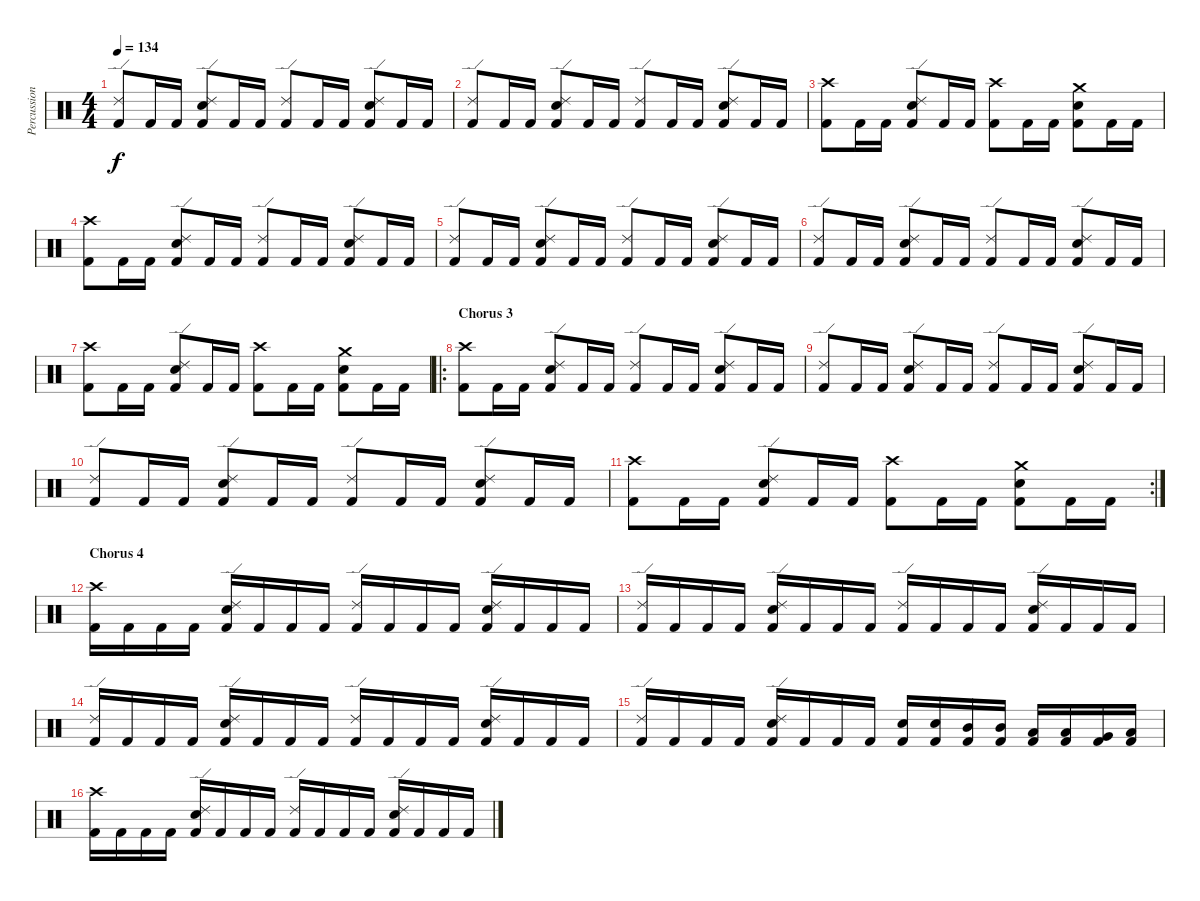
\track ("Percussion" "Percussion") {instrument percussion}
\staff {score}
\articulation defaults
\ts (4 4)
\tempo 134
\clef neutral
\ks c
("Kick (hit) 2" "Ride (edge) 2").8{dy f} "Kick (hit) 2".16 "Kick (hit) 2".16 ("Kick (hit) 2" "Snare (hit) 2" "Ride (edge) 2").8 "Kick (hit) 2".16 "Kick (hit) 2".16 ("Kick (hit) 2" "Ride (edge) 2").8 "Kick (hit) 2".16 "Kick (hit) 2".16 ("Kick (hit) 2" "Snare (hit) 2" "Ride (edge) 2").8 "Kick (hit) 2".16 "Kick (hit) 2".16 |
("Kick (hit) 2" "Ride (edge) 2").8 "Kick (hit) 2".16 "Kick (hit) 2".16 ("Kick (hit) 2" "Snare (hit) 2" "Ride (edge) 2").8 "Kick (hit) 2".16 "Kick (hit) 2".16 ("Kick (hit) 2" "Ride (edge) 2").8 "Kick (hit) 2".16 "Kick (hit) 2".16 ("Kick (hit) 2" "Snare (hit) 2" "Ride (edge) 2").8 "Kick (hit) 2".16 "Kick (hit) 2".16 |
("Kick (hit) 2" "Crash high (hit)").8 "Kick (hit) 2".16 "Kick (hit) 2".16 ("Kick (hit) 2" "Snare (hit) 2" "Ride (edge) 2").8 "Kick (hit) 2".16 "Kick (hit) 2".16 ("Kick (hit) 2" "Crash high (hit)").8 "Kick (hit) 2".16 "Kick (hit) 2".16 ("Kick (hit) 2" "Snare (hit) 2" "Crash medium (hit)").8 "Kick (hit) 2".16 "Kick (hit) 2".16 |
("Kick (hit) 2" "Crash high (hit)").8 "Kick (hit) 2".16 "Kick (hit) 2".16 ("Kick (hit) 2" "Snare (hit) 2" "Ride (edge) 2").8 "Kick (hit) 2".16 "Kick (hit) 2".16 ("Kick (hit) 2" "Ride (edge) 2").8 "Kick (hit) 2".16 "Kick (hit) 2".16 ("Kick (hit) 2" "Snare (hit) 2" "Ride (edge) 2").8 "Kick (hit) 2".16 "Kick (hit) 2".16 |
("Kick (hit) 2" "Ride (edge) 2").8 "Kick (hit) 2".16 "Kick (hit) 2".16 ("Kick (hit) 2" "Snare (hit) 2" "Ride (edge) 2").8 "Kick (hit) 2".16 "Kick (hit) 2".16 ("Kick (hit) 2" "Ride (edge) 2").8 "Kick (hit) 2".16 "Kick (hit) 2".16 ("Kick (hit) 2" "Snare (hit) 2" "Ride (edge) 2").8 "Kick (hit) 2".16 "Kick (hit) 2".16 |
("Kick (hit) 2" "Ride (edge) 2").8 "Kick (hit) 2".16 "Kick (hit) 2".16 ("Kick (hit) 2" "Snare (hit) 2" "Ride (edge) 2").8 "Kick (hit) 2".16 "Kick (hit) 2".16 ("Kick (hit) 2" "Ride (edge) 2").8 "Kick (hit) 2".16 "Kick (hit) 2".16 ("Kick (hit) 2" "Snare (hit) 2" "Ride (edge) 2").8 "Kick (hit) 2".16 "Kick (hit) 2".16 |
("Kick (hit) 2" "Crash high (hit)").8 "Kick (hit) 2".16 "Kick (hit) 2".16 ("Kick (hit) 2" "Snare (hit) 2" "Ride (edge) 2").8 "Kick (hit) 2".16 "Kick (hit) 2".16 ("Kick (hit) 2" "Crash high (hit)").8 "Kick (hit) 2".16 "Kick (hit) 2".16 ("Kick (hit) 2" "Snare (hit) 2" "Crash medium (hit)").8 "Kick (hit) 2".16 "Kick (hit) 2".16 |
\ro
\section ("" "Chorus 3")
("Kick (hit) 2" "Crash high (hit)").8 "Kick (hit) 2".16 "Kick (hit) 2".16 ("Kick (hit) 2" "Snare (hit) 2" "Ride (edge) 2").8 "Kick (hit) 2".16 "Kick (hit) 2".16 ("Kick (hit) 2" "Ride (edge) 2").8 "Kick (hit) 2".16 "Kick (hit) 2".16 ("Kick (hit) 2" "Snare (hit) 2" "Ride (edge) 2").8 "Kick (hit) 2".16 "Kick (hit) 2".16 |
("Kick (hit) 2" "Ride (edge) 2").8 "Kick (hit) 2".16 "Kick (hit) 2".16 ("Kick (hit) 2" "Snare (hit) 2" "Ride (edge) 2").8 "Kick (hit) 2".16 "Kick (hit) 2".16 ("Kick (hit) 2" "Ride (edge) 2").8 "Kick (hit) 2".16 "Kick (hit) 2".16 ("Kick (hit) 2" "Snare (hit) 2" "Ride (edge) 2").8 "Kick (hit) 2".16 "Kick (hit) 2".16 |
("Kick (hit) 2" "Ride (edge) 2").8 "Kick (hit) 2".16 "Kick (hit) 2".16 ("Kick (hit) 2" "Snare (hit) 2" "Ride (edge) 2").8 "Kick (hit) 2".16 "Kick (hit) 2".16 ("Kick (hit) 2" "Ride (edge) 2").8 "Kick (hit) 2".16 "Kick (hit) 2".16 ("Kick (hit) 2" "Snare (hit) 2" "Ride (edge) 2").8 "Kick (hit) 2".16 "Kick (hit) 2".16 |
\rc 2
("Kick (hit) 2" "Crash high (hit)").8 "Kick (hit) 2".16 "Kick (hit) 2".16 ("Kick (hit) 2" "Snare (hit) 2" "Ride (edge) 2").8 "Kick (hit) 2".16 "Kick (hit) 2".16 ("Kick (hit) 2" "Crash high (hit)").8 "Kick (hit) 2".16 "Kick (hit) 2".16 ("Kick (hit) 2" "Snare (hit) 2" "Crash medium (hit)").8 "Kick (hit) 2".16 "Kick (hit) 2".16 |
\section ("" "Chorus 4")
("Kick (hit) 2" "Crash high (hit)").16 "Kick (hit) 2".16 "Kick (hit) 2".16 "Kick (hit) 2".16 ("Kick (hit) 2" "Snare (hit) 2" "Ride (edge) 2").16 "Kick (hit) 2".16 "Kick (hit) 2".16 "Kick (hit) 2".16 ("Kick (hit) 2" "Ride (edge) 2").16 "Kick (hit) 2".16 "Kick (hit) 2".16 "Kick (hit) 2".16 ("Kick (hit) 2" "Snare (hit) 2" "Ride (edge) 2").16 "Kick (hit) 2".16 "Kick (hit) 2".16 "Kick (hit) 2".16 |
("Kick (hit) 2" "Ride (edge) 2").16 "Kick (hit) 2".16 "Kick (hit) 2".16 "Kick (hit) 2".16 ("Kick (hit) 2" "Snare (hit) 2" "Ride (edge) 2").16 "Kick (hit) 2".16 "Kick (hit) 2".16 "Kick (hit) 2".16 ("Kick (hit) 2" "Ride (edge) 2").16 "Kick (hit) 2".16 "Kick (hit) 2".16 "Kick (hit) 2".16 ("Kick (hit) 2" "Snare (hit) 2" "Ride (edge) 2").16 "Kick (hit) 2".16 "Kick (hit) 2".16 "Kick (hit) 2".16 |
("Kick (hit) 2" "Ride (edge) 2").16 "Kick (hit) 2".16 "Kick (hit) 2".16 "Kick (hit) 2".16 ("Kick (hit) 2" "Snare (hit) 2" "Ride (edge) 2").16 "Kick (hit) 2".16 "Kick (hit) 2".16 "Kick (hit) 2".16 ("Kick (hit) 2" "Ride (edge) 2").16 "Kick (hit) 2".16 "Kick (hit) 2".16 "Kick (hit) 2".16 ("Kick (hit) 2" "Snare (hit) 2" "Ride (edge) 2").16 "Kick (hit) 2".16 "Kick (hit) 2".16 "Kick (hit) 2".16 |
("Kick (hit) 2" "Ride (edge) 2").16 "Kick (hit) 2".16 "Kick (hit) 2".16 "Kick (hit) 2".16 ("Kick (hit) 2" "Snare (hit) 2" "Ride (edge) 2").16 "Kick (hit) 2".16 "Kick (hit) 2".16 "Kick (hit) 2".16 ("Kick (hit) 2" "Snare (hit) 2").16 ("Kick (hit) 2" "Snare (hit) 2").16 ("Kick (hit) 2" "Mid Tom (hit)").16 ("Kick (hit) 2" "Mid Tom (hit)").16 ("Kick (hit) 2" "Low Tom (hit)").16 ("Kick (hit) 2" "Low Tom (hit)").16 ("Kick (hit) 2" "Very Low Tom (hit)").16 ("Kick (hit) 2" "Low Floor Tom (hit)").16 |
("Kick (hit) 2" "Crash high (hit)").16 "Kick (hit) 2".16 "Kick (hit) 2".16 "Kick (hit) 2".16 ("Kick (hit) 2" "Snare (hit) 2" "Ride (edge) 2").16 "Kick (hit) 2".16 "Kick (hit) 2".16 "Kick (hit) 2".16 ("Kick (hit) 2" "Ride (edge) 2").16 "Kick (hit) 2".16 "Kick (hit) 2".16 "Kick (hit) 2".16 ("Kick (hit) 2" "Snare (hit) 2" "Ride (edge) 2").16 "Kick (hit) 2".16 "Kick (hit) 2".16 "Kick (hit) 2".16
